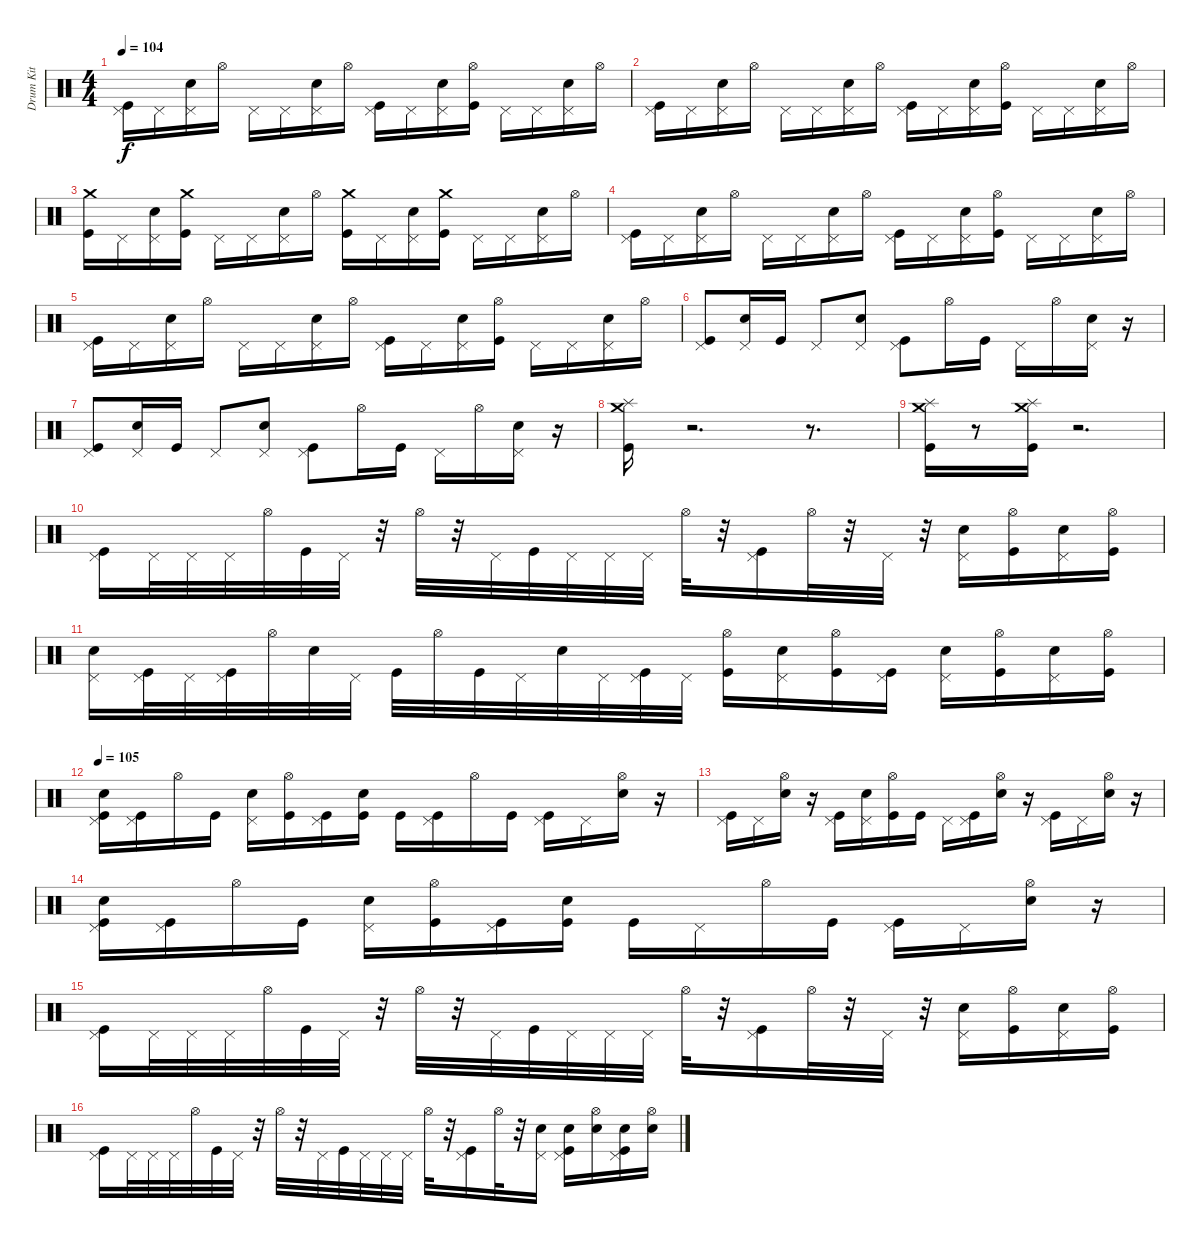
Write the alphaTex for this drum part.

\track ("Drum Kit" "Drum Kit") {instrument percussion}
\staff {score}
\articulation defaults
\ts (4 4)
\tempo 104
\clef neutral
\ks c
("Kick (hit)" "Pedal Hi-Hat (hit)").16{dy f} "Pedal Hi-Hat (hit)".16 ("Electric Snare (hit)" "Pedal Hi-Hat (hit)").16 "Hi-Hat (open)".16 "Pedal Hi-Hat (hit)".16 "Pedal Hi-Hat (hit)".16 ("Electric Snare (hit)" "Pedal Hi-Hat (hit)").16 "Hi-Hat (open)".16 ("Kick (hit)" "Pedal Hi-Hat (hit)").16 "Pedal Hi-Hat (hit)".16 ("Electric Snare (hit)" "Pedal Hi-Hat (hit)").16 ("Kick (hit)" "Hi-Hat (open)").16 "Pedal Hi-Hat (hit)".16 "Pedal Hi-Hat (hit)".16 ("Electric Snare (hit)" "Pedal Hi-Hat (hit)").16 "Hi-Hat (open)".16 |
("Kick (hit)" "Pedal Hi-Hat (hit)").16 "Pedal Hi-Hat (hit)".16 ("Electric Snare (hit)" "Pedal Hi-Hat (hit)").16 "Hi-Hat (open)".16 "Pedal Hi-Hat (hit)".16 "Pedal Hi-Hat (hit)".16 ("Electric Snare (hit)" "Pedal Hi-Hat (hit)").16 "Hi-Hat (open)".16 ("Kick (hit)" "Pedal Hi-Hat (hit)").16 "Pedal Hi-Hat (hit)".16 ("Electric Snare (hit)" "Pedal Hi-Hat (hit)").16 ("Kick (hit)" "Hi-Hat (open)").16 "Pedal Hi-Hat (hit)".16 "Pedal Hi-Hat (hit)".16 ("Electric Snare (hit)" "Pedal Hi-Hat (hit)").16 "Hi-Hat (open)".16 |
("Kick (hit)" "Crash medium (hit)").16 "Pedal Hi-Hat (hit)".16 ("Pedal Hi-Hat (hit)" "Electric Snare (hit)").16 ("Kick (hit)" "Crash medium (hit)").16 "Pedal Hi-Hat (hit)".16 "Pedal Hi-Hat (hit)".16 ("Pedal Hi-Hat (hit)" "Electric Snare (hit)").16 "Hi-Hat (open)".16 ("Kick (hit)" "Crash medium (hit)").16 "Pedal Hi-Hat (hit)".16 ("Pedal Hi-Hat (hit)" "Electric Snare (hit)").16 ("Kick (hit)" "Crash medium (hit)").16 "Pedal Hi-Hat (hit)".16 "Pedal Hi-Hat (hit)".16 ("Pedal Hi-Hat (hit)" "Electric Snare (hit)").16 "Hi-Hat (open)".16 |
("Kick (hit)" "Pedal Hi-Hat (hit)").16 "Pedal Hi-Hat (hit)".16 ("Electric Snare (hit)" "Pedal Hi-Hat (hit)").16 "Hi-Hat (open)".16 "Pedal Hi-Hat (hit)".16 "Pedal Hi-Hat (hit)".16 ("Electric Snare (hit)" "Pedal Hi-Hat (hit)").16 "Hi-Hat (open)".16 ("Kick (hit)" "Pedal Hi-Hat (hit)").16 "Pedal Hi-Hat (hit)".16 ("Electric Snare (hit)" "Pedal Hi-Hat (hit)").16 ("Kick (hit)" "Hi-Hat (open)").16 "Pedal Hi-Hat (hit)".16 "Pedal Hi-Hat (hit)".16 ("Electric Snare (hit)" "Pedal Hi-Hat (hit)").16 "Hi-Hat (open)".16 |
("Kick (hit)" "Pedal Hi-Hat (hit)").16 "Pedal Hi-Hat (hit)".16 ("Electric Snare (hit)" "Pedal Hi-Hat (hit)").16 "Hi-Hat (open)".16 "Pedal Hi-Hat (hit)".16 "Pedal Hi-Hat (hit)".16 ("Electric Snare (hit)" "Pedal Hi-Hat (hit)").16 "Hi-Hat (open)".16 ("Kick (hit)" "Pedal Hi-Hat (hit)").16 "Pedal Hi-Hat (hit)".16 ("Electric Snare (hit)" "Pedal Hi-Hat (hit)").16 ("Kick (hit)" "Hi-Hat (open)").16 "Pedal Hi-Hat (hit)".16 "Pedal Hi-Hat (hit)".16 ("Electric Snare (hit)" "Pedal Hi-Hat (hit)").16 "Hi-Hat (open)".16 |
("Kick (hit)" "Pedal Hi-Hat (hit)").8 ("Electric Snare (hit)" "Pedal Hi-Hat (hit)").16 "Kick (hit)".16 "Pedal Hi-Hat (hit)".8 ("Electric Snare (hit)" "Pedal Hi-Hat (hit)").8 ("Kick (hit)" "Pedal Hi-Hat (hit)").8 "Hi-Hat (open)".16 "Kick (hit)".16 "Pedal Hi-Hat (hit)".16 "Hi-Hat (open)".16 ("Electric Snare (hit)" "Pedal Hi-Hat (hit)").16 r.16 |
("Kick (hit)" "Pedal Hi-Hat (hit)").8 ("Electric Snare (hit)" "Pedal Hi-Hat (hit)").16 "Kick (hit)".16 "Pedal Hi-Hat (hit)".8 ("Electric Snare (hit)" "Pedal Hi-Hat (hit)").8 ("Kick (hit)" "Pedal Hi-Hat (hit)").8 "Hi-Hat (open)".16 "Kick (hit)".16 "Pedal Hi-Hat (hit)".16 "Hi-Hat (open)".16 ("Electric Snare (hit)" "Pedal Hi-Hat (hit)").16 r.16 |
("Kick (hit)" "Splash (hit)" "Crash medium (hit)").16 r.2{d} r.8{d} |
("Crash medium (hit)" "Kick (hit)" "Splash (hit)").16 r.8 ("Kick (hit)" "Splash (hit)" "Crash medium (hit)").16 r.2{d} |
("Kick (hit)" "Pedal Hi-Hat (hit)").16 "Pedal Hi-Hat (hit)".32 "Pedal Hi-Hat (hit)".32 "Pedal Hi-Hat (hit)".32 "Hi-Hat (open)".32 "Kick (hit)".32 "Pedal Hi-Hat (hit)".32 r.32 "Hi-Hat (open)".32 r.32 "Pedal Hi-Hat (hit)".32 "Kick (hit)".32 "Pedal Hi-Hat (hit)".32 "Pedal Hi-Hat (hit)".32 "Pedal Hi-Hat (hit)".32 "Hi-Hat (open)".32 r.32 ("Pedal Hi-Hat (hit)" "Kick (hit)").16 "Hi-Hat (open)".32 r.32 "Pedal Hi-Hat (hit)".32 r.32 ("Pedal Hi-Hat (hit)" "Electric Snare (hit)").16 ("Hi-Hat (open)" "Kick (hit)").16 ("Pedal Hi-Hat (hit)" "Electric Snare (hit)").16 ("Hi-Hat (open)" "Kick (hit)").16 |
("Electric Snare (hit)" "Pedal Hi-Hat (hit)").16 ("Kick (hit)" "Pedal Hi-Hat (hit)").32 "Pedal Hi-Hat (hit)".32 ("Kick (hit)" "Pedal Hi-Hat (hit)").32 "Hi-Hat (open)".32 "Electric Snare (hit)".32 "Pedal Hi-Hat (hit)".32 "Kick (hit)".32 "Hi-Hat (open)".32 "Kick (hit)".32 "Pedal Hi-Hat (hit)".32 "Electric Snare (hit)".32 "Pedal Hi-Hat (hit)".32 ("Kick (hit)" "Pedal Hi-Hat (hit)").32 "Pedal Hi-Hat (hit)".32 ("Kick (hit)" "Hi-Hat (open)").16 ("Pedal Hi-Hat (hit)" "Electric Snare (hit)").16 ("Kick (hit)" "Hi-Hat (open)").16 ("Kick (hit)" "Pedal Hi-Hat (hit)").16 ("Pedal Hi-Hat (hit)" "Electric Snare (hit)").16 ("Hi-Hat (open)" "Kick (hit)").16 ("Pedal Hi-Hat (hit)" "Electric Snare (hit)").16 ("Hi-Hat (open)" "Kick (hit)").16 |
\tempo 105
("Electric Snare (hit)" "Kick (hit)" "Pedal Hi-Hat (hit)").16 ("Kick (hit)" "Pedal Hi-Hat (hit)").16 "Hi-Hat (open)".16 "Kick (hit)".16 ("Electric Snare (hit)" "Pedal Hi-Hat (hit)").16 ("Kick (hit)" "Hi-Hat (open)").16 ("Kick (hit)" "Pedal Hi-Hat (hit)").16 ("Kick (hit)" "Electric Snare (hit)").16 "Kick (hit)".16 ("Kick (hit)" "Pedal Hi-Hat (hit)").16 "Hi-Hat (open)".16 "Kick (hit)".16 ("Kick (hit)" "Pedal Hi-Hat (hit)").16 "Pedal Hi-Hat (hit)".16 ("Electric Snare (hit)" "Hi-Hat (open)").16 r.16 |
("Pedal Hi-Hat (hit)" "Kick (hit)").16 "Pedal Hi-Hat (hit)".16 ("Hi-Hat (open)" "Electric Snare (hit)").16 r.16 ("Pedal Hi-Hat (hit)" "Kick (hit)").16 ("Pedal Hi-Hat (hit)" "Electric Snare (hit)").16 ("Hi-Hat (open)" "Kick (hit)").16 "Kick (hit)".16 "Pedal Hi-Hat (hit)".16 ("Pedal Hi-Hat (hit)" "Kick (hit)").16 ("Hi-Hat (open)" "Electric Snare (hit)").16 r.16 ("Pedal Hi-Hat (hit)" "Kick (hit)").16 "Pedal Hi-Hat (hit)".16 ("Hi-Hat (open)" "Electric Snare (hit)").16 r.16 |
("Electric Snare (hit)" "Kick (hit)" "Pedal Hi-Hat (hit)").16 ("Kick (hit)" "Pedal Hi-Hat (hit)").16 "Hi-Hat (open)".16 "Kick (hit)".16 ("Electric Snare (hit)" "Pedal Hi-Hat (hit)").16 ("Kick (hit)" "Hi-Hat (open)").16 ("Kick (hit)" "Pedal Hi-Hat (hit)").16 ("Kick (hit)" "Electric Snare (hit)").16 "Kick (hit)".16 "Pedal Hi-Hat (hit)".16 "Hi-Hat (open)".16 "Kick (hit)".16 ("Kick (hit)" "Pedal Hi-Hat (hit)").16 "Pedal Hi-Hat (hit)".16 ("Electric Snare (hit)" "Hi-Hat (open)").16 r.16 |
("Kick (hit)" "Pedal Hi-Hat (hit)").16 "Pedal Hi-Hat (hit)".32 "Pedal Hi-Hat (hit)".32 "Pedal Hi-Hat (hit)".32 "Hi-Hat (open)".32 "Kick (hit)".32 "Pedal Hi-Hat (hit)".32 r.32 "Hi-Hat (open)".32 r.32 "Pedal Hi-Hat (hit)".32 "Kick (hit)".32 "Pedal Hi-Hat (hit)".32 "Pedal Hi-Hat (hit)".32 "Pedal Hi-Hat (hit)".32 "Hi-Hat (open)".32 r.32 ("Pedal Hi-Hat (hit)" "Kick (hit)").16 "Hi-Hat (open)".32 r.32 "Pedal Hi-Hat (hit)".32 r.32 ("Pedal Hi-Hat (hit)" "Electric Snare (hit)").16 ("Hi-Hat (open)" "Kick (hit)").16 ("Pedal Hi-Hat (hit)" "Electric Snare (hit)").16 ("Hi-Hat (open)" "Kick (hit)").16 |
("Kick (hit)" "Pedal Hi-Hat (hit)").16 "Pedal Hi-Hat (hit)".32 "Pedal Hi-Hat (hit)".32 "Pedal Hi-Hat (hit)".32 "Hi-Hat (open)".32 "Kick (hit)".32 "Pedal Hi-Hat (hit)".32 r.32 "Hi-Hat (open)".32 r.32 "Pedal Hi-Hat (hit)".32 "Kick (hit)".32 "Pedal Hi-Hat (hit)".32 "Pedal Hi-Hat (hit)".32 "Pedal Hi-Hat (hit)".32 "Hi-Hat (open)".32 r.32 ("Pedal Hi-Hat (hit)" "Kick (hit)").16 "Hi-Hat (open)".32 r.32 ("Electric Snare (hit)" "Pedal Hi-Hat (hit)").16 ("Kick (hit)" "Electric Snare (hit)" "Pedal Hi-Hat (hit)").16 ("Electric Snare (hit)" "Hi-Hat (open)").16 ("Kick (hit)" "Pedal Hi-Hat (hit)" "Electric Snare (hit)").16 ("Electric Snare (hit)" "Hi-Hat (open)").16
